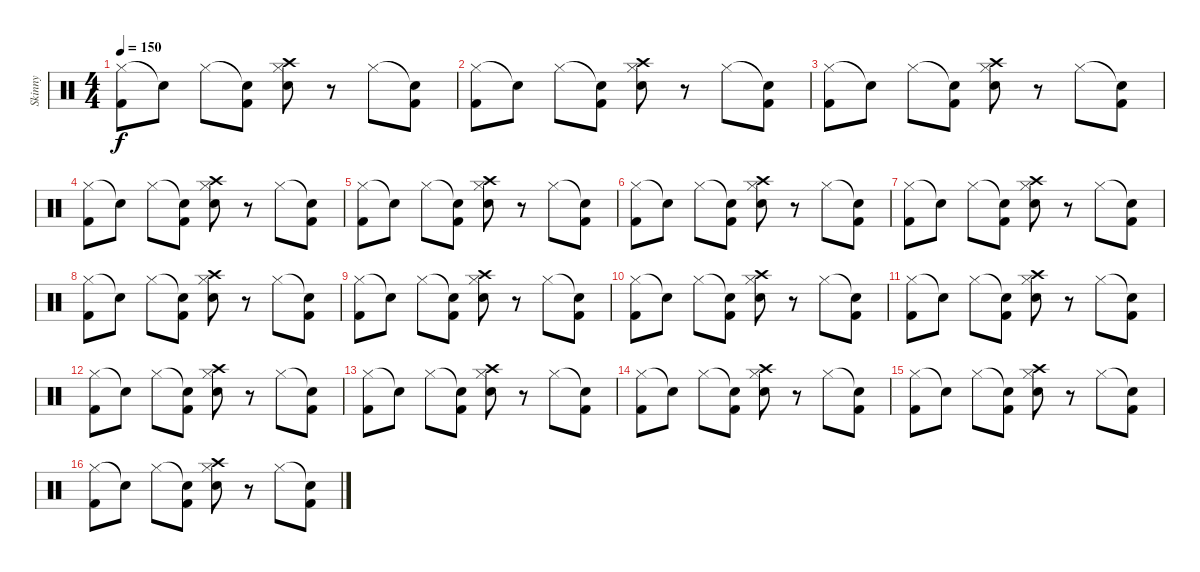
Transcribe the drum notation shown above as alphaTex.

\track ("Skinny" "Skinny") {instrument percussion}
\staff {score}
\articulation defaults
\ts (4 4)
\tempo 150
\clef neutral
\ks c
("Hi-Hat (closed)" "Kick (hit) 2").8{dy f} "Snare (hit)"{t}.8 "Hi-Hat (closed)".8 ("Snare (hit)"{t} "Kick (hit) 2").8 ("Crash high (hit)" "Hi-Hat (closed)" "Electric Snare (hit)").8 r.8 "Hi-Hat (closed)".8 ("Snare (hit)"{t} "Kick (hit) 2").8 |
("Hi-Hat (closed)" "Kick (hit) 2").8 "Snare (hit)"{t}.8 "Hi-Hat (closed)".8 ("Snare (hit)"{t} "Kick (hit) 2").8 ("Crash high (hit)" "Hi-Hat (closed)" "Electric Snare (hit)").8 r.8 "Hi-Hat (closed)".8 ("Snare (hit)"{t} "Kick (hit) 2").8 |
("Hi-Hat (closed)" "Kick (hit) 2").8 "Snare (hit)"{t}.8 "Hi-Hat (closed)".8 ("Snare (hit)"{t} "Kick (hit) 2").8 ("Crash high (hit)" "Hi-Hat (closed)" "Electric Snare (hit)").8 r.8 "Hi-Hat (closed)".8 ("Snare (hit)"{t} "Kick (hit) 2").8 |
("Hi-Hat (closed)" "Kick (hit) 2").8 "Snare (hit)"{t}.8 "Hi-Hat (closed)".8 ("Snare (hit)"{t} "Kick (hit) 2").8 ("Crash high (hit)" "Hi-Hat (closed)" "Electric Snare (hit)").8 r.8 "Hi-Hat (closed)".8 ("Snare (hit)"{t} "Kick (hit) 2").8 |
("Hi-Hat (closed)" "Kick (hit) 2").8 "Snare (hit)"{t}.8 "Hi-Hat (closed)".8 ("Snare (hit)"{t} "Kick (hit) 2").8 ("Crash high (hit)" "Hi-Hat (closed)" "Electric Snare (hit)").8 r.8 "Hi-Hat (closed)".8 ("Snare (hit)"{t} "Kick (hit) 2").8 |
("Hi-Hat (closed)" "Kick (hit) 2").8 "Snare (hit)"{t}.8 "Hi-Hat (closed)".8 ("Snare (hit)"{t} "Kick (hit) 2").8 ("Crash high (hit)" "Hi-Hat (closed)" "Electric Snare (hit)").8 r.8 "Hi-Hat (closed)".8 ("Snare (hit)"{t} "Kick (hit) 2").8 |
("Hi-Hat (closed)" "Kick (hit) 2").8 "Snare (hit)"{t}.8 "Hi-Hat (closed)".8 ("Snare (hit)"{t} "Kick (hit) 2").8 ("Crash high (hit)" "Hi-Hat (closed)" "Electric Snare (hit)").8 r.8 "Hi-Hat (closed)".8 ("Snare (hit)"{t} "Kick (hit) 2").8 |
("Hi-Hat (closed)" "Kick (hit) 2").8 "Snare (hit)"{t}.8 "Hi-Hat (closed)".8 ("Snare (hit)"{t} "Kick (hit) 2").8 ("Crash high (hit)" "Hi-Hat (closed)" "Electric Snare (hit)").8 r.8 "Hi-Hat (closed)".8 ("Snare (hit)"{t} "Kick (hit) 2").8 |
("Hi-Hat (closed)" "Kick (hit) 2").8 "Snare (hit)"{t}.8 "Hi-Hat (closed)".8 ("Snare (hit)"{t} "Kick (hit) 2").8 ("Crash high (hit)" "Hi-Hat (closed)" "Electric Snare (hit)").8 r.8 "Hi-Hat (closed)".8 ("Snare (hit)"{t} "Kick (hit) 2").8 |
("Hi-Hat (closed)" "Kick (hit) 2").8 "Snare (hit)"{t}.8 "Hi-Hat (closed)".8 ("Snare (hit)"{t} "Kick (hit) 2").8 ("Crash high (hit)" "Hi-Hat (closed)" "Electric Snare (hit)").8 r.8 "Hi-Hat (closed)".8 ("Snare (hit)"{t} "Kick (hit) 2").8 |
("Hi-Hat (closed)" "Kick (hit) 2").8 "Snare (hit)"{t}.8 "Hi-Hat (closed)".8 ("Snare (hit)"{t} "Kick (hit) 2").8 ("Crash high (hit)" "Hi-Hat (closed)" "Electric Snare (hit)").8 r.8 "Hi-Hat (closed)".8 ("Snare (hit)"{t} "Kick (hit) 2").8 |
("Hi-Hat (closed)" "Kick (hit) 2").8 "Snare (hit)"{t}.8 "Hi-Hat (closed)".8 ("Snare (hit)"{t} "Kick (hit) 2").8 ("Crash high (hit)" "Hi-Hat (closed)" "Electric Snare (hit)").8 r.8 "Hi-Hat (closed)".8 ("Snare (hit)"{t} "Kick (hit) 2").8 |
("Hi-Hat (closed)" "Kick (hit) 2").8 "Snare (hit)"{t}.8 "Hi-Hat (closed)".8 ("Snare (hit)"{t} "Kick (hit) 2").8 ("Crash high (hit)" "Hi-Hat (closed)" "Electric Snare (hit)").8 r.8 "Hi-Hat (closed)".8 ("Snare (hit)"{t} "Kick (hit) 2").8 |
("Hi-Hat (closed)" "Kick (hit) 2").8 "Snare (hit)"{t}.8 "Hi-Hat (closed)".8 ("Snare (hit)"{t} "Kick (hit) 2").8 ("Crash high (hit)" "Hi-Hat (closed)" "Electric Snare (hit)").8 r.8 "Hi-Hat (closed)".8 ("Snare (hit)"{t} "Kick (hit) 2").8 |
("Hi-Hat (closed)" "Kick (hit) 2").8 "Snare (hit)"{t}.8 "Hi-Hat (closed)".8 ("Snare (hit)"{t} "Kick (hit) 2").8 ("Crash high (hit)" "Hi-Hat (closed)" "Electric Snare (hit)").8 r.8 "Hi-Hat (closed)".8 ("Snare (hit)"{t} "Kick (hit) 2").8 |
("Hi-Hat (closed)" "Kick (hit) 2").8 "Snare (hit)"{t}.8 "Hi-Hat (closed)".8 ("Snare (hit)"{t} "Kick (hit) 2").8 ("Crash high (hit)" "Hi-Hat (closed)" "Electric Snare (hit)").8 r.8 "Hi-Hat (closed)".8 ("Snare (hit)"{t} "Kick (hit) 2").8
